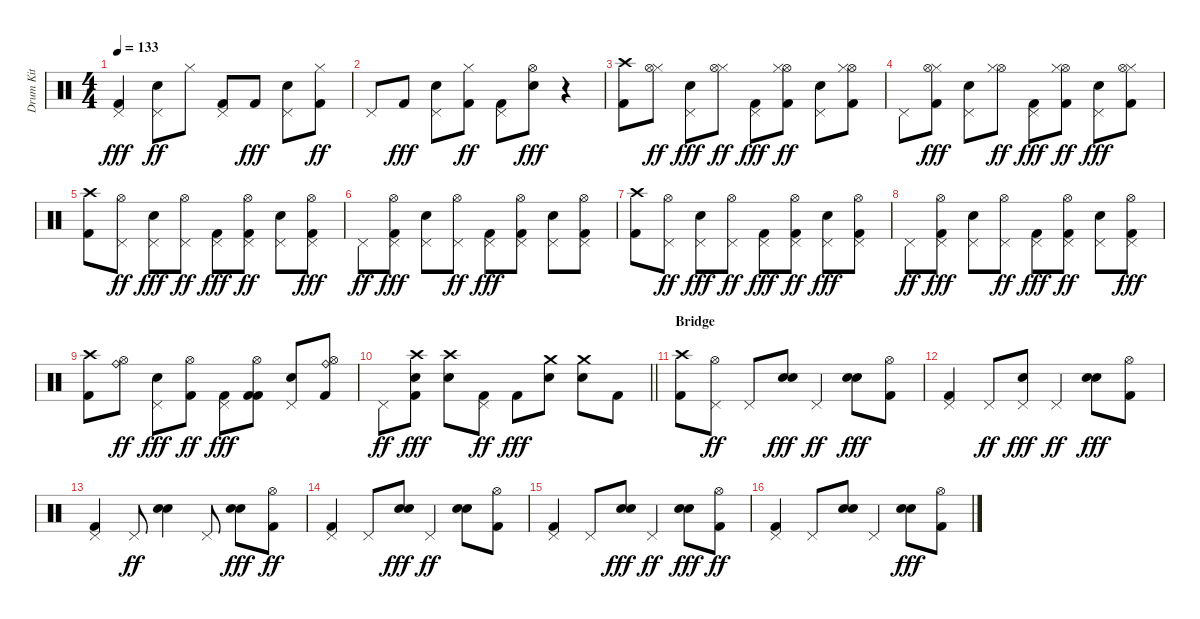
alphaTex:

\track ("Drum Kit" "Drum Kit") {instrument percussion}
\staff {score}
\articulation defaults
\ts (4 4)
\tempo 133
\clef neutral
\ks c
("Pedal Hi-Hat (hit)" "Kick (hit) 2").4{dy fff} ("Electric Snare (hit)" "Pedal Hi-Hat (hit)").8{dy ff} "Hi-Hat (closed)".8 ("Kick (hit) 2" "Pedal Hi-Hat (hit)").8 "Kick (hit) 2".8{dy fff} ("Pedal Hi-Hat (hit)" "Electric Snare (hit)").8 ("Kick (hit) 2" "Hi-Hat (closed)").8{dy ff} |
"Pedal Hi-Hat (hit)".8 "Kick (hit) 2".8{dy fff} ("Pedal Hi-Hat (hit)" "Electric Snare (hit)").8 ("Kick (hit) 2" "Hi-Hat (closed)").8{dy ff} ("Kick (hit) 2" "Pedal Hi-Hat (hit)").8 ("Hi-Hat (open)" "Electric Snare (hit)").8{dy fff} r.4 |
("Crash high (hit)" "Kick (hit) 2").8 ("Hi-Hat (closed)" "Hi-Hat (open)").8{dy ff} ("Pedal Hi-Hat (hit)" "Electric Snare (hit)").8{dy fff} ("Hi-Hat (closed)" "Hi-Hat (open)").8{dy ff} ("Pedal Hi-Hat (hit)" "Kick (hit) 2").8{dy fff} ("Kick (hit) 2" "Hi-Hat (open)" "Hi-Hat (closed)").8{dy ff} ("Electric Snare (hit)" "Pedal Hi-Hat (hit)").8 ("Kick (hit) 2" "Hi-Hat (open)" "Hi-Hat (closed)").8 |
"Pedal Hi-Hat (hit)".8 ("Hi-Hat (closed)" "Hi-Hat (open)" "Kick (hit) 2").8{dy fff} ("Pedal Hi-Hat (hit)" "Electric Snare (hit)").8 ("Hi-Hat (open)" "Hi-Hat (closed)").8{dy ff} ("Pedal Hi-Hat (hit)" "Kick (hit) 2").8{dy fff} ("Hi-Hat (open)" "Kick (hit) 2" "Hi-Hat (closed)").8{dy ff} ("Pedal Hi-Hat (hit)" "Electric Snare (hit)").8{dy fff} ("Hi-Hat (closed)" "Hi-Hat (open)" "Kick (hit) 2").8 |
("Crash high (hit)" "Kick (hit) 2").8 ("Hi-Hat (open)" "Pedal Hi-Hat (hit)").8{dy ff} ("Pedal Hi-Hat (hit)" "Electric Snare (hit)").8{dy fff} ("Hi-Hat (open)" "Pedal Hi-Hat (hit)").8{dy ff} ("Pedal Hi-Hat (hit)" "Kick (hit) 2").8{dy fff} ("Kick (hit) 2" "Hi-Hat (open)" "Pedal Hi-Hat (hit)").8{dy ff} ("Electric Snare (hit)" "Pedal Hi-Hat (hit)").8 ("Hi-Hat (open)" "Pedal Hi-Hat (hit)" "Kick (hit) 2").8{dy fff} |
"Pedal Hi-Hat (hit)".8{dy ff} ("Hi-Hat (open)" "Pedal Hi-Hat (hit)" "Kick (hit) 2").8{dy fff} ("Pedal Hi-Hat (hit)" "Electric Snare (hit)").8 ("Pedal Hi-Hat (hit)" "Hi-Hat (open)").8{dy ff} ("Pedal Hi-Hat (hit)" "Kick (hit) 2").8{dy fff} ("Pedal Hi-Hat (hit)" "Hi-Hat (open)" "Kick (hit) 2").8 ("Pedal Hi-Hat (hit)" "Electric Snare (hit)").8 ("Pedal Hi-Hat (hit)" "Hi-Hat (open)" "Kick (hit) 2").8 |
("Crash high (hit)" "Kick (hit) 2").8 ("Pedal Hi-Hat (hit)" "Hi-Hat (open)").8{dy ff} ("Pedal Hi-Hat (hit)" "Electric Snare (hit)").8{dy fff} ("Hi-Hat (open)" "Pedal Hi-Hat (hit)").8{dy ff} ("Pedal Hi-Hat (hit)" "Kick (hit) 2").8{dy fff} ("Pedal Hi-Hat (hit)" "Kick (hit) 2" "Hi-Hat (open)").8{dy ff} ("Pedal Hi-Hat (hit)" "Electric Snare (hit)").8{dy fff} ("Pedal Hi-Hat (hit)" "Hi-Hat (open)" "Kick (hit) 2").8 |
"Pedal Hi-Hat (hit)".8{dy ff} ("Pedal Hi-Hat (hit)" "Hi-Hat (open)" "Kick (hit) 2").8{dy fff} ("Pedal Hi-Hat (hit)" "Electric Snare (hit)").8 ("Pedal Hi-Hat (hit)" "Hi-Hat (open)").8{dy ff} ("Pedal Hi-Hat (hit)" "Kick (hit) 2").8{dy fff} ("Hi-Hat (open)" "Kick (hit) 2" "Pedal Hi-Hat (hit)").8{dy ff} ("Electric Snare (hit)" "Pedal Hi-Hat (hit)").8 ("Hi-Hat (open)" "Pedal Hi-Hat (hit)" "Kick (hit) 2").8{dy fff} |
("Crash high (hit)" "Kick (hit) 2").8 ("Ride (bell)" "Hi-Hat (open)").8{dy ff} ("Pedal Hi-Hat (hit)" "Electric Snare (hit)").8{dy fff} ("Kick (hit) 2" "Hi-Hat (open)").8{dy ff} ("Pedal Hi-Hat (hit)" "Kick (hit) 2").8{dy fff} ("Kick (hit) 2" "Hi-Hat (open)" "Kick (hit) 2").8 ("Pedal Hi-Hat (hit)" "Electric Snare (hit)").8 ("Ride (bell)" "Hi-Hat (open)" "Kick (hit) 2").8 |
\barLineRight lightlight "Pedal Hi-Hat (hit)".8{dy ff}
("Crash high (hit)" "Kick (hit) 2" "Electric Snare (hit)").8{dy fff} ("Crash high (hit)" "Electric Snare (hit)").8 ("Kick (hit) 2" "Pedal Hi-Hat (hit)").8{dy ff} "Kick (hit) 2".8{dy fff} ("Crash medium (hit)" "Electric Snare (hit)").8 ("Crash medium (hit)" "Electric Snare (hit)").8 "Kick (hit) 2".8 |
\section ("" "Bridge")
("Crash high (hit)" "Kick (hit) 2").8 ("Hi-Hat (open)" "Pedal Hi-Hat (hit)").8{dy ff} "Pedal Hi-Hat (hit)".8 ("Electric Snare (hit)" "Electric Snare (hit)").8{bd 120 dy fff} "Pedal Hi-Hat (hit)".4{dy ff} ("Electric Snare (hit)" "Electric Snare (hit)").8{bd 240 dy fff} ("Hi-Hat (open)" "Kick (hit) 2").8 |
("Pedal Hi-Hat (hit)" "Kick (hit) 2").4 "Pedal Hi-Hat (hit)".8{dy ff} ("Pedal Hi-Hat (hit)" "Electric Snare (hit)").8{bd 240 dy fff} "Pedal Hi-Hat (hit)".4{dy ff} ("Electric Snare (hit)" "Electric Snare (hit)").8{bd 120 dy fff} ("Hi-Hat (open)" "Kick (hit) 2").8 |
("Pedal Hi-Hat (hit)" "Kick (hit) 2").4 "Pedal Hi-Hat (hit)".8{dy ff} ("Electric Snare (hit)" "Electric Snare (hit)").4{bd 240} "Pedal Hi-Hat (hit)".8 ("Electric Snare (hit)" "Electric Snare (hit)").8{bd 240 dy fff} ("Kick (hit) 2" "Hi-Hat (open)").8{dy ff} |
("Kick (hit) 2" "Pedal Hi-Hat (hit)").4 "Pedal Hi-Hat (hit)".8 ("Electric Snare (hit)" "Electric Snare (hit)").8{bd 120 dy fff} "Pedal Hi-Hat (hit)".4{dy ff} ("Electric Snare (hit)" "Electric Snare (hit)").8{bd 240} ("Kick (hit) 2" "Hi-Hat (open)").8 |
("Kick (hit) 2" "Pedal Hi-Hat (hit)").4 "Pedal Hi-Hat (hit)".8 ("Electric Snare (hit)" "Electric Snare (hit)").8{bd 240 dy fff} "Pedal Hi-Hat (hit)".4{dy ff} ("Electric Snare (hit)" "Electric Snare (hit)").8{bd 240 dy fff} ("Kick (hit) 2" "Hi-Hat (open)").8{dy ff} |
("Kick (hit) 2" "Pedal Hi-Hat (hit)").4 "Pedal Hi-Hat (hit)".8 ("Electric Snare (hit)" "Electric Snare (hit)").8{bd 120} "Pedal Hi-Hat (hit)".4 ("Electric Snare (hit)" "Electric Snare (hit)").8{bd 240 dy fff} ("Hi-Hat (open)" "Kick (hit) 2").8
